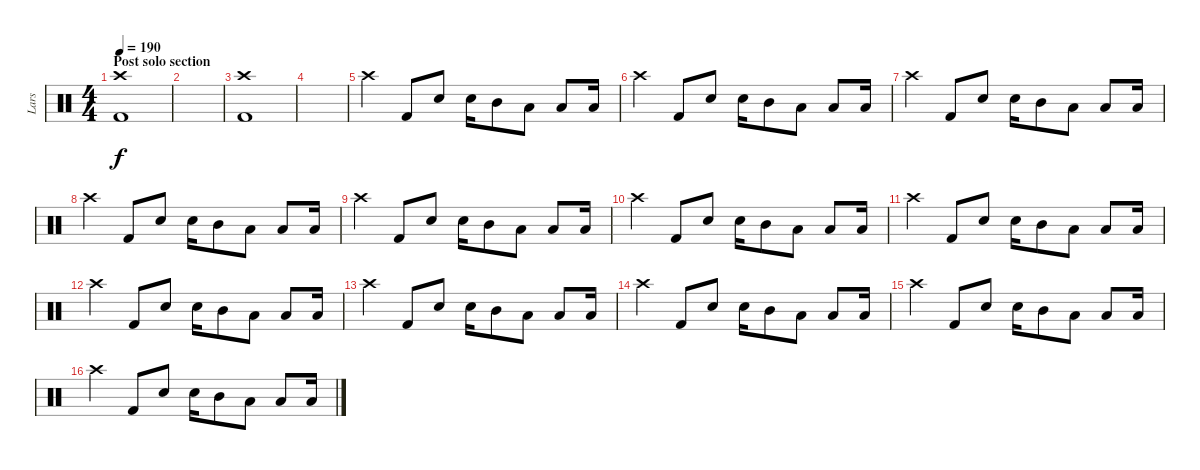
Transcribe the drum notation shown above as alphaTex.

\track ("Lars" "Lars") {instrument percussion}
\staff {score}
\articulation defaults
\ts (4 4)
\section ("" "Post solo section")
\tempo 190
\clef neutral
\ks c
("Kick (hit) 2" "Crash high (hit)").1{dy f} |
|
("Crash high (hit)" "Kick (hit) 2").1 |
|
"Crash high (hit)".4 "Kick (hit) 2".8 "Snare (hit) 2".8 "Snare (hit) 2".16 "Mid Tom (hit)".8 "Low Tom (hit)".8 "Low Floor Tom (hit)".8 "Low Floor Tom (hit)".16 |
"Crash high (hit)".4 "Kick (hit) 2".8 "Snare (hit) 2".8 "Snare (hit) 2".16 "Mid Tom (hit)".8 "Low Tom (hit)".8 "Low Floor Tom (hit)".8 "Low Floor Tom (hit)".16 |
"Crash high (hit)".4 "Kick (hit) 2".8 "Snare (hit) 2".8 "Snare (hit) 2".16 "Mid Tom (hit)".8 "Low Tom (hit)".8 "Low Floor Tom (hit)".8 "Low Floor Tom (hit)".16 |
"Crash high (hit)".4 "Kick (hit) 2".8 "Snare (hit) 2".8 "Snare (hit) 2".16 "Mid Tom (hit)".8 "Low Tom (hit)".8 "Low Floor Tom (hit)".8 "Low Floor Tom (hit)".16 |
"Crash high (hit)".4 "Kick (hit) 2".8 "Snare (hit) 2".8 "Snare (hit) 2".16 "Mid Tom (hit)".8 "Low Tom (hit)".8 "Low Floor Tom (hit)".8 "Low Floor Tom (hit)".16 |
"Crash high (hit)".4 "Kick (hit) 2".8 "Snare (hit) 2".8 "Snare (hit) 2".16 "Mid Tom (hit)".8 "Low Tom (hit)".8 "Low Floor Tom (hit)".8 "Low Floor Tom (hit)".16 |
"Crash high (hit)".4 "Kick (hit) 2".8 "Snare (hit) 2".8 "Snare (hit) 2".16 "Mid Tom (hit)".8 "Low Tom (hit)".8 "Low Floor Tom (hit)".8 "Low Floor Tom (hit)".16 |
"Crash high (hit)".4 "Kick (hit) 2".8 "Snare (hit) 2".8 "Snare (hit) 2".16 "Mid Tom (hit)".8 "Low Tom (hit)".8 "Low Floor Tom (hit)".8 "Low Floor Tom (hit)".16 |
"Crash high (hit)".4 "Kick (hit) 2".8 "Snare (hit) 2".8 "Snare (hit) 2".16 "Mid Tom (hit)".8 "Low Tom (hit)".8 "Low Floor Tom (hit)".8 "Low Floor Tom (hit)".16 |
"Crash high (hit)".4 "Kick (hit) 2".8 "Snare (hit) 2".8 "Snare (hit) 2".16 "Mid Tom (hit)".8 "Low Tom (hit)".8 "Low Floor Tom (hit)".8 "Low Floor Tom (hit)".16 |
"Crash high (hit)".4 "Kick (hit) 2".8 "Snare (hit) 2".8 "Snare (hit) 2".16 "Mid Tom (hit)".8 "Low Tom (hit)".8 "Low Floor Tom (hit)".8 "Low Floor Tom (hit)".16 |
"Crash high (hit)".4 "Kick (hit) 2".8 "Snare (hit) 2".8 "Snare (hit) 2".16 "Mid Tom (hit)".8 "Low Tom (hit)".8 "Low Floor Tom (hit)".8 "Low Floor Tom (hit)".16
